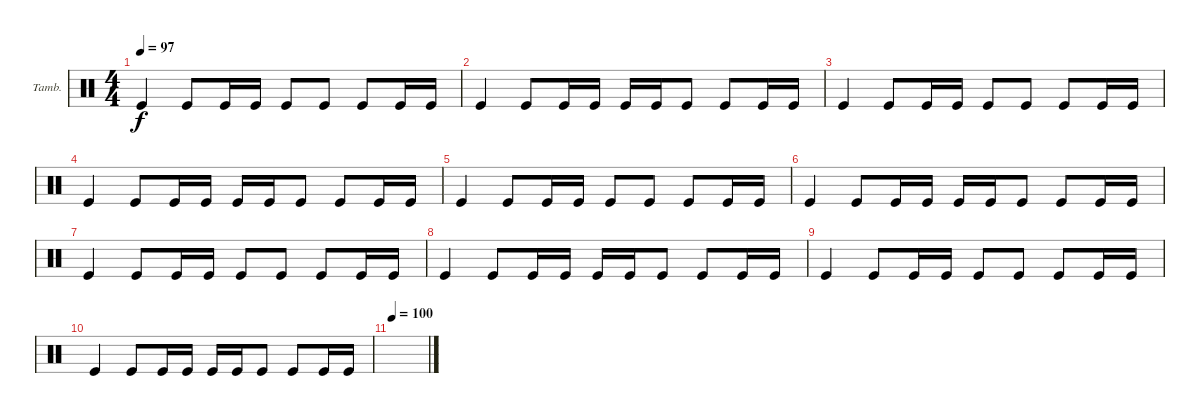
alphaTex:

\defaultSystemsLayout 4
\bracketExtendMode groupsimilarinstruments
\firstSystemTrackNameOrientation horizontal
\otherSystemsTrackNameOrientation horizontal
\track ("Tambourine [Robert]" "Tamb.") {instrument percussion}
\staff {score}
\articulation defaults
\ts (4 4)
\tempo 97
\clef neutral
\ks c "Kick (hit)".4{dy f} "Kick (hit)".8 "Kick (hit)".16 "Kick (hit)".16 "Kick (hit)".8 "Kick (hit)".8 "Kick (hit)".8 "Kick (hit)".16 "Kick (hit)".16
|
"Kick (hit)".4 "Kick (hit)".8 "Kick (hit)".16 "Kick (hit)".16 "Kick (hit)".16 "Kick (hit)".16 "Kick (hit)".8 "Kick (hit)".8 "Kick (hit)".16 "Kick (hit)".16 |
"Kick (hit)".4 "Kick (hit)".8 "Kick (hit)".16 "Kick (hit)".16 "Kick (hit)".8 "Kick (hit)".8 "Kick (hit)".8 "Kick (hit)".16 "Kick (hit)".16 |
"Kick (hit)".4 "Kick (hit)".8 "Kick (hit)".16 "Kick (hit)".16 "Kick (hit)".16 "Kick (hit)".16 "Kick (hit)".8 "Kick (hit)".8 "Kick (hit)".16 "Kick (hit)".16 |
"Kick (hit)".4 "Kick (hit)".8 "Kick (hit)".16 "Kick (hit)".16 "Kick (hit)".8 "Kick (hit)".8 "Kick (hit)".8 "Kick (hit)".16 "Kick (hit)".16 |
"Kick (hit)".4 "Kick (hit)".8 "Kick (hit)".16 "Kick (hit)".16 "Kick (hit)".16 "Kick (hit)".16 "Kick (hit)".8 "Kick (hit)".8 "Kick (hit)".16 "Kick (hit)".16 |
"Kick (hit)".4 "Kick (hit)".8 "Kick (hit)".16 "Kick (hit)".16 "Kick (hit)".8 "Kick (hit)".8 "Kick (hit)".8 "Kick (hit)".16 "Kick (hit)".16 |
"Kick (hit)".4 "Kick (hit)".8 "Kick (hit)".16 "Kick (hit)".16 "Kick (hit)".16 "Kick (hit)".16 "Kick (hit)".8 "Kick (hit)".8 "Kick (hit)".16 "Kick (hit)".16 |
"Kick (hit)".4 "Kick (hit)".8 "Kick (hit)".16 "Kick (hit)".16 "Kick (hit)".8 "Kick (hit)".8 "Kick (hit)".8 "Kick (hit)".16 "Kick (hit)".16 |
"Kick (hit)".4 "Kick (hit)".8 "Kick (hit)".16 "Kick (hit)".16 "Kick (hit)".16 "Kick (hit)".16 "Kick (hit)".8 "Kick (hit)".8 "Kick (hit)".16 "Kick (hit)".16 |
\tempo (100 0.01875)
